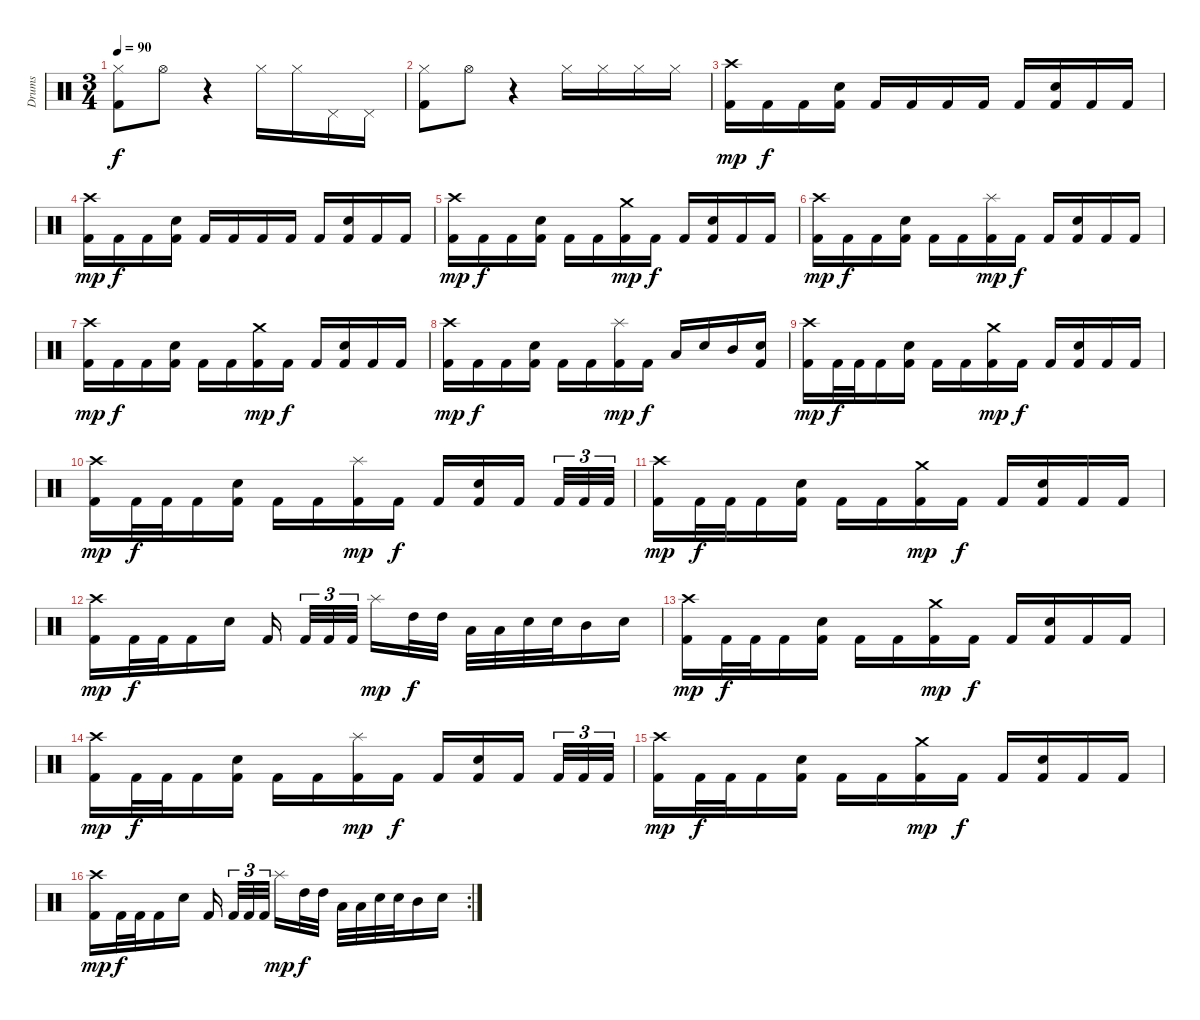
\track ("Drums" "Drums") {instrument percussion}
\staff {score}
\articulation defaults
\ts (3 4)
\tempo 90
\clef neutral
\ks c
("Hi-Hat (closed)" "Kick (hit) 2").8{dy f} "Hi-Hat (open)".8 r.4 "Hi-Hat (closed)".16 "Hi-Hat (closed)".16 "Pedal Hi-Hat (hit)".16 "Pedal Hi-Hat (hit)".16 |
("Hi-Hat (closed)" "Kick (hit) 2").8 "Hi-Hat (open)".8 r.4 "Hi-Hat (closed)".16 "Hi-Hat (closed)".16 "Hi-Hat (closed)".16 "Hi-Hat (closed)".16 |
("Kick (hit) 2" "Crash high (hit)").16{dy mp} "Kick (hit) 2".16{dy f} "Kick (hit) 2".16 ("Kick (hit) 2" "Electric Snare (hit)").16 "Kick (hit) 2".16 "Kick (hit) 2".16 "Kick (hit) 2".16 "Kick (hit) 2".16 "Kick (hit) 2".16 ("Kick (hit) 2" "Electric Snare (hit)").16 "Kick (hit) 2".16 "Kick (hit) 2".16 |
("Kick (hit) 2" "Crash high (hit)").16{dy mp} "Kick (hit) 2".16{dy f} "Kick (hit) 2".16 ("Kick (hit) 2" "Electric Snare (hit)").16 "Kick (hit) 2".16 "Kick (hit) 2".16 "Kick (hit) 2".16 "Kick (hit) 2".16 "Kick (hit) 2".16 ("Kick (hit) 2" "Electric Snare (hit)").16 "Kick (hit) 2".16 "Kick (hit) 2".16 |
("Kick (hit) 2" "Crash high (hit)").16{dy mp} "Kick (hit) 2".16{dy f} "Kick (hit) 2".16 ("Kick (hit) 2" "Electric Snare (hit)").16 "Kick (hit) 2".16 "Kick (hit) 2".16 ("Kick (hit) 2" "Crash medium (hit)").16{dy mp} "Kick (hit) 2".16{dy f} "Kick (hit) 2".16 ("Kick (hit) 2" "Electric Snare (hit)").16 "Kick (hit) 2".16 "Kick (hit) 2".16 |
("Kick (hit) 2" "Crash high (hit)").16{dy mp} "Kick (hit) 2".16{dy f} "Kick (hit) 2".16 ("Kick (hit) 2" "Electric Snare (hit)").16 "Kick (hit) 2".16 "Kick (hit) 2".16 ("Kick (hit) 2" "Splash (hit)").16{dy mp} "Kick (hit) 2".16{dy f} "Kick (hit) 2".16 ("Kick (hit) 2" "Electric Snare (hit)").16 "Kick (hit) 2".16 "Kick (hit) 2".16 |
("Kick (hit) 2" "Crash high (hit)").16{dy mp} "Kick (hit) 2".16{dy f} "Kick (hit) 2".16 ("Kick (hit) 2" "Electric Snare (hit)").16 "Kick (hit) 2".16 "Kick (hit) 2".16 ("Kick (hit) 2" "Crash medium (hit)").16{dy mp} "Kick (hit) 2".16{dy f} "Kick (hit) 2".16 ("Kick (hit) 2" "Electric Snare (hit)").16 "Kick (hit) 2".16 "Kick (hit) 2".16 |
("Kick (hit) 2" "Crash high (hit)").16{dy mp} "Kick (hit) 2".16{dy f} "Kick (hit) 2".16 ("Kick (hit) 2" "Electric Snare (hit)").16 "Kick (hit) 2".16 "Kick (hit) 2".16 ("Kick (hit) 2" "Splash (hit)").16{dy mp} "Kick (hit) 2".16{dy f} "Low Tom (hit)".16 "Electric Snare (hit)".16 "Mid Tom (hit)".16 ("Kick (hit) 2" "Electric Snare (hit)").16 |
("Kick (hit) 2" "Crash high (hit)").16{dy mp} "Kick (hit) 2".32{dy f} "Kick (hit) 2".32 "Kick (hit) 2".16 ("Kick (hit) 2" "Electric Snare (hit)").16 "Kick (hit) 2".16 "Kick (hit) 2".16 ("Kick (hit) 2" "Crash medium (hit)").16{dy mp} "Kick (hit) 2".16{dy f} "Kick (hit) 2".16 ("Kick (hit) 2" "Electric Snare (hit)").16 "Kick (hit) 2".16 "Kick (hit) 2".16 |
("Kick (hit) 2" "Crash high (hit)").16{dy mp} "Kick (hit) 2".32{dy f} "Kick (hit) 2".32 "Kick (hit) 2".16 ("Kick (hit) 2" "Electric Snare (hit)").16 "Kick (hit) 2".16 "Kick (hit) 2".16 ("Kick (hit) 2" "Splash (hit)").16{dy mp} "Kick (hit) 2".16{dy f} "Kick (hit) 2".16 ("Kick (hit) 2" "Electric Snare (hit)").16 "Kick (hit) 2".16 "Kick (hit) 2".32{tu (3 2)} "Kick (hit) 2".32{tu (3 2)} "Kick (hit) 2".32{tu (3 2)} |
("Kick (hit) 2" "Crash high (hit)").16{dy mp} "Kick (hit) 2".32{dy f} "Kick (hit) 2".32 "Kick (hit) 2".16 ("Kick (hit) 2" "Electric Snare (hit)").16 "Kick (hit) 2".16 "Kick (hit) 2".16 ("Kick (hit) 2" "Crash medium (hit)").16{dy mp} "Kick (hit) 2".16{dy f} "Kick (hit) 2".16 ("Kick (hit) 2" "Electric Snare (hit)").16 "Kick (hit) 2".16 "Kick (hit) 2".16 |
("Kick (hit) 2" "Crash high (hit)").16{dy mp} "Kick (hit) 2".32{dy f} "Kick (hit) 2".32 "Kick (hit) 2".16 "Electric Snare (hit)".16 "Kick (hit) 2".16 "Kick (hit) 2".32{tu (3 2)} "Kick (hit) 2".32{tu (3 2)} "Kick (hit) 2".32{tu (3 2)} "Splash (hit)".16{dy mp} "High Tom (hit)".32{dy f} "High Tom (hit)".32 "Low Tom (hit)".32 "Low Tom (hit)".32 "Electric Snare (hit)".32 "Electric Snare (hit)".32 "Mid Tom (hit)".16 "Electric Snare (hit)".16 |
("Kick (hit) 2" "Crash high (hit)").16{dy mp} "Kick (hit) 2".32{dy f} "Kick (hit) 2".32 "Kick (hit) 2".16 ("Kick (hit) 2" "Electric Snare (hit)").16 "Kick (hit) 2".16 "Kick (hit) 2".16 ("Kick (hit) 2" "Crash medium (hit)").16{dy mp} "Kick (hit) 2".16{dy f} "Kick (hit) 2".16 ("Kick (hit) 2" "Electric Snare (hit)").16 "Kick (hit) 2".16 "Kick (hit) 2".16 |
("Kick (hit) 2" "Crash high (hit)").16{dy mp} "Kick (hit) 2".32{dy f} "Kick (hit) 2".32 "Kick (hit) 2".16 ("Kick (hit) 2" "Electric Snare (hit)").16 "Kick (hit) 2".16 "Kick (hit) 2".16 ("Kick (hit) 2" "Splash (hit)").16{dy mp} "Kick (hit) 2".16{dy f} "Kick (hit) 2".16 ("Kick (hit) 2" "Electric Snare (hit)").16 "Kick (hit) 2".16 "Kick (hit) 2".32{tu (3 2)} "Kick (hit) 2".32{tu (3 2)} "Kick (hit) 2".32{tu (3 2)} |
("Kick (hit) 2" "Crash high (hit)").16{dy mp} "Kick (hit) 2".32{dy f} "Kick (hit) 2".32 "Kick (hit) 2".16 ("Kick (hit) 2" "Electric Snare (hit)").16 "Kick (hit) 2".16 "Kick (hit) 2".16 ("Kick (hit) 2" "Crash medium (hit)").16{dy mp} "Kick (hit) 2".16{dy f} "Kick (hit) 2".16 ("Kick (hit) 2" "Electric Snare (hit)").16 "Kick (hit) 2".16 "Kick (hit) 2".16 |
\rc 2
("Kick (hit) 2" "Crash high (hit)").16{dy mp} "Kick (hit) 2".32{dy f} "Kick (hit) 2".32 "Kick (hit) 2".16 "Electric Snare (hit)".16 "Kick (hit) 2".16 "Kick (hit) 2".32{tu (3 2)} "Kick (hit) 2".32{tu (3 2)} "Kick (hit) 2".32{tu (3 2)} "Splash (hit)".16{dy mp} "High Tom (hit)".32{dy f} "High Tom (hit)".32 "Low Tom (hit)".32 "Low Tom (hit)".32 "Electric Snare (hit)".32 "Electric Snare (hit)".32 "Mid Tom (hit)".16 "Electric Snare (hit)".16
